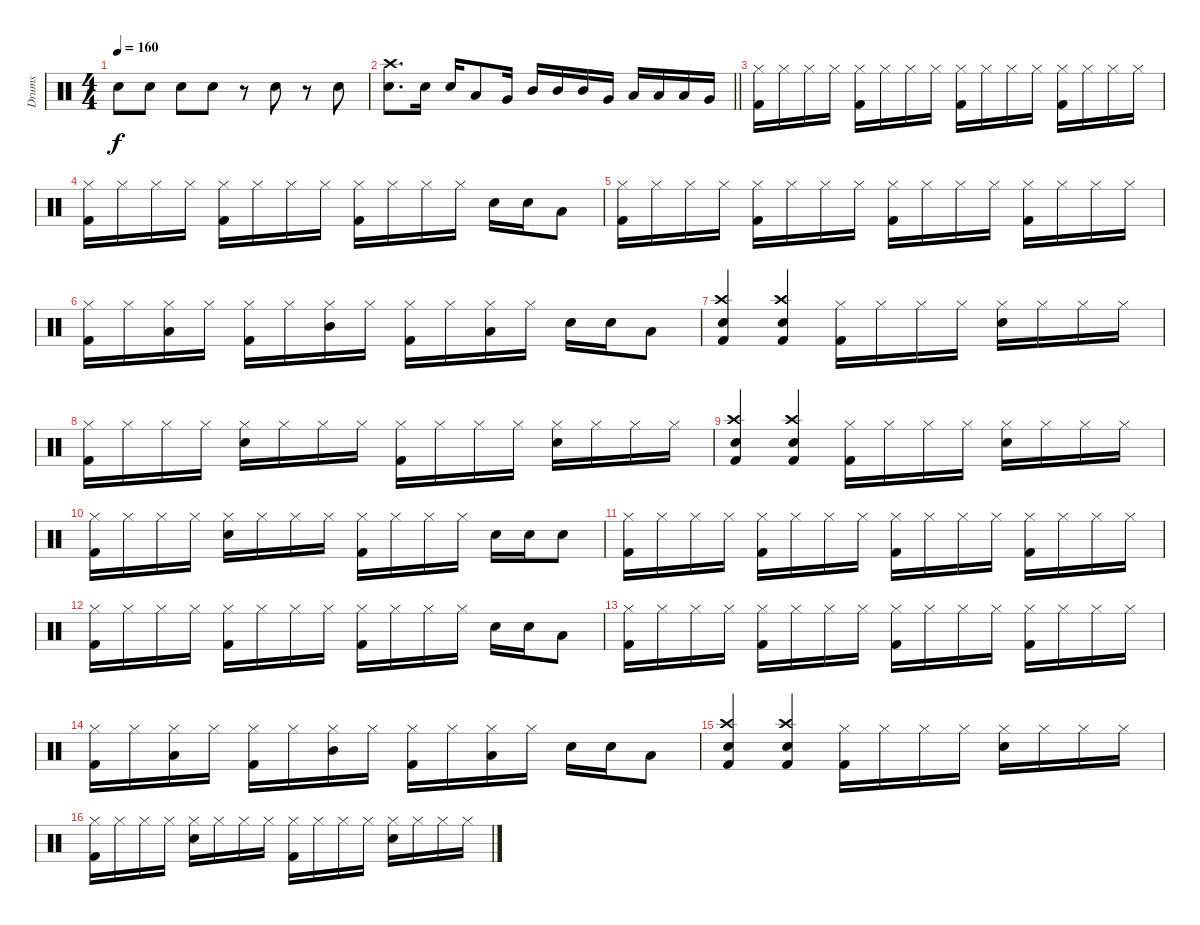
\track ("Drums" "Drums") {instrument percussion}
\staff {score}
\articulation defaults
\ts (4 4)
\tempo 160
\clef neutral
\ks c "Snare (hit) 2".8{dy f} "Snare (hit) 2".8 "Snare (hit) 2".8 "Snare (hit) 2".8
r.8 "Snare (hit) 2".8 r.8 "Snare (hit) 2".8 |
\barLineRight lightlight
("Crash high (hit)" "Snare (hit) 2").8{d} "Snare (hit) 2".16 "Snare (hit) 2".16 "Low Tom (hit)".8 "Very Low Tom (hit)".16 "Mid Tom (hit)".16 "Mid Tom (hit)".16 "Mid Tom (hit)".16 "Very Low Tom (hit)".16 "Low Tom (hit)".16 "Low Tom (hit)".16 "Low Tom (hit)".16 "Very Low Tom (hit)".16 |
("Hi-Hat (closed)" "Kick (hit) 2").16 "Hi-Hat (closed)".16 "Hi-Hat (closed)".16 "Hi-Hat (closed)".16 ("Hi-Hat (closed)" "Kick (hit) 2").16 "Hi-Hat (closed)".16 "Hi-Hat (closed)".16 "Hi-Hat (closed)".16 ("Hi-Hat (closed)" "Kick (hit) 2").16 "Hi-Hat (closed)".16 "Hi-Hat (closed)".16 "Hi-Hat (closed)".16 ("Hi-Hat (closed)" "Kick (hit) 2").16 "Hi-Hat (closed)".16 "Hi-Hat (closed)".16 "Hi-Hat (closed)".16 |
("Hi-Hat (closed)" "Kick (hit) 2").16 "Hi-Hat (closed)".16 "Hi-Hat (closed)".16 "Hi-Hat (closed)".16 ("Hi-Hat (closed)" "Kick (hit) 2").16 "Hi-Hat (closed)".16 "Hi-Hat (closed)".16 "Hi-Hat (closed)".16 ("Hi-Hat (closed)" "Kick (hit) 2").16 "Hi-Hat (closed)".16 "Hi-Hat (closed)".16 "Hi-Hat (closed)".16 "Snare (hit) 2".16 "Snare (hit) 2".16 "Low Tom (hit)".8 |
("Hi-Hat (closed)" "Kick (hit) 2").16 "Hi-Hat (closed)".16 "Hi-Hat (closed)".16 "Hi-Hat (closed)".16 ("Hi-Hat (closed)" "Kick (hit) 2").16 "Hi-Hat (closed)".16 "Hi-Hat (closed)".16 "Hi-Hat (closed)".16 ("Hi-Hat (closed)" "Kick (hit) 2").16 "Hi-Hat (closed)".16 "Hi-Hat (closed)".16 "Hi-Hat (closed)".16 ("Hi-Hat (closed)" "Kick (hit) 2").16 "Hi-Hat (closed)".16 "Hi-Hat (closed)".16 "Hi-Hat (closed)".16 |
("Hi-Hat (closed)" "Kick (hit) 2").16 "Hi-Hat (closed)".16 ("Hi-Hat (closed)" "Low Tom (hit)").16 "Hi-Hat (closed)".16 ("Hi-Hat (closed)" "Kick (hit) 2").16 "Hi-Hat (closed)".16 ("Hi-Hat (closed)" "Mid Tom (hit)").16 "Hi-Hat (closed)".16 ("Hi-Hat (closed)" "Kick (hit) 2").16 "Hi-Hat (closed)".16 ("Hi-Hat (closed)" "Low Tom (hit)").16 "Hi-Hat (closed)".16 "Snare (hit) 2".16 "Snare (hit) 2".16 "Low Tom (hit)".8 |
("Crash high (hit)" "Snare (hit) 2" "Kick (hit) 2").4 ("Crash high (hit)" "Snare (hit) 2" "Kick (hit) 2").4 ("Hi-Hat (closed)" "Kick (hit) 2").16 "Hi-Hat (closed)".16 "Hi-Hat (closed)".16 "Hi-Hat (closed)".16 ("Hi-Hat (closed)" "Snare (hit) 2").16 "Hi-Hat (closed)".16 "Hi-Hat (closed)".16 "Hi-Hat (closed)".16 |
("Hi-Hat (closed)" "Kick (hit) 2").16 "Hi-Hat (closed)".16 "Hi-Hat (closed)".16 "Hi-Hat (closed)".16 ("Hi-Hat (closed)" "Snare (hit) 2").16 "Hi-Hat (closed)".16 "Hi-Hat (closed)".16 "Hi-Hat (closed)".16 ("Hi-Hat (closed)" "Kick (hit) 2").16 "Hi-Hat (closed)".16 "Hi-Hat (closed)".16 "Hi-Hat (closed)".16 ("Hi-Hat (closed)" "Snare (hit) 2").16 "Hi-Hat (closed)".16 "Hi-Hat (closed)".16 "Hi-Hat (closed)".16 |
("Crash high (hit)" "Snare (hit) 2" "Kick (hit) 2").4 ("Crash high (hit)" "Snare (hit) 2" "Kick (hit) 2").4 ("Hi-Hat (closed)" "Kick (hit) 2").16 "Hi-Hat (closed)".16 "Hi-Hat (closed)".16 "Hi-Hat (closed)".16 ("Hi-Hat (closed)" "Snare (hit) 2").16 "Hi-Hat (closed)".16 "Hi-Hat (closed)".16 "Hi-Hat (closed)".16 |
("Hi-Hat (closed)" "Kick (hit) 2").16 "Hi-Hat (closed)".16 "Hi-Hat (closed)".16 "Hi-Hat (closed)".16 ("Hi-Hat (closed)" "Snare (hit) 2").16 "Hi-Hat (closed)".16 "Hi-Hat (closed)".16 "Hi-Hat (closed)".16 ("Hi-Hat (closed)" "Kick (hit) 2").16 "Hi-Hat (closed)".16 "Hi-Hat (closed)".16 "Hi-Hat (closed)".16 "Snare (hit) 2".16 "Snare (hit) 2".16 "Snare (hit) 2".8 |
("Hi-Hat (closed)" "Kick (hit) 2").16 "Hi-Hat (closed)".16 "Hi-Hat (closed)".16 "Hi-Hat (closed)".16 ("Hi-Hat (closed)" "Kick (hit) 2").16 "Hi-Hat (closed)".16 "Hi-Hat (closed)".16 "Hi-Hat (closed)".16 ("Hi-Hat (closed)" "Kick (hit) 2").16 "Hi-Hat (closed)".16 "Hi-Hat (closed)".16 "Hi-Hat (closed)".16 ("Hi-Hat (closed)" "Kick (hit) 2").16 "Hi-Hat (closed)".16 "Hi-Hat (closed)".16 "Hi-Hat (closed)".16 |
("Hi-Hat (closed)" "Kick (hit) 2").16 "Hi-Hat (closed)".16 "Hi-Hat (closed)".16 "Hi-Hat (closed)".16 ("Hi-Hat (closed)" "Kick (hit) 2").16 "Hi-Hat (closed)".16 "Hi-Hat (closed)".16 "Hi-Hat (closed)".16 ("Hi-Hat (closed)" "Kick (hit) 2").16 "Hi-Hat (closed)".16 "Hi-Hat (closed)".16 "Hi-Hat (closed)".16 "Snare (hit) 2".16 "Snare (hit) 2".16 "Low Tom (hit)".8 |
("Hi-Hat (closed)" "Kick (hit) 2").16 "Hi-Hat (closed)".16 "Hi-Hat (closed)".16 "Hi-Hat (closed)".16 ("Hi-Hat (closed)" "Kick (hit) 2").16 "Hi-Hat (closed)".16 "Hi-Hat (closed)".16 "Hi-Hat (closed)".16 ("Hi-Hat (closed)" "Kick (hit) 2").16 "Hi-Hat (closed)".16 "Hi-Hat (closed)".16 "Hi-Hat (closed)".16 ("Hi-Hat (closed)" "Kick (hit) 2").16 "Hi-Hat (closed)".16 "Hi-Hat (closed)".16 "Hi-Hat (closed)".16 |
("Hi-Hat (closed)" "Kick (hit) 2").16 "Hi-Hat (closed)".16 ("Hi-Hat (closed)" "Low Tom (hit)").16 "Hi-Hat (closed)".16 ("Hi-Hat (closed)" "Kick (hit) 2").16 "Hi-Hat (closed)".16 ("Hi-Hat (closed)" "Mid Tom (hit)").16 "Hi-Hat (closed)".16 ("Hi-Hat (closed)" "Kick (hit) 2").16 "Hi-Hat (closed)".16 ("Hi-Hat (closed)" "Low Tom (hit)").16 "Hi-Hat (closed)".16 "Snare (hit) 2".16 "Snare (hit) 2".16 "Low Tom (hit)".8 |
("Crash high (hit)" "Snare (hit) 2" "Kick (hit) 2").4 ("Crash high (hit)" "Snare (hit) 2" "Kick (hit) 2").4 ("Hi-Hat (closed)" "Kick (hit) 2").16 "Hi-Hat (closed)".16 "Hi-Hat (closed)".16 "Hi-Hat (closed)".16 ("Hi-Hat (closed)" "Snare (hit) 2").16 "Hi-Hat (closed)".16 "Hi-Hat (closed)".16 "Hi-Hat (closed)".16 |
("Hi-Hat (closed)" "Kick (hit) 2").16 "Hi-Hat (closed)".16 "Hi-Hat (closed)".16 "Hi-Hat (closed)".16 ("Hi-Hat (closed)" "Snare (hit) 2").16 "Hi-Hat (closed)".16 "Hi-Hat (closed)".16 "Hi-Hat (closed)".16 ("Hi-Hat (closed)" "Kick (hit) 2").16 "Hi-Hat (closed)".16 "Hi-Hat (closed)".16 "Hi-Hat (closed)".16 ("Hi-Hat (closed)" "Snare (hit) 2").16 "Hi-Hat (closed)".16 "Hi-Hat (closed)".16 "Hi-Hat (closed)".16
